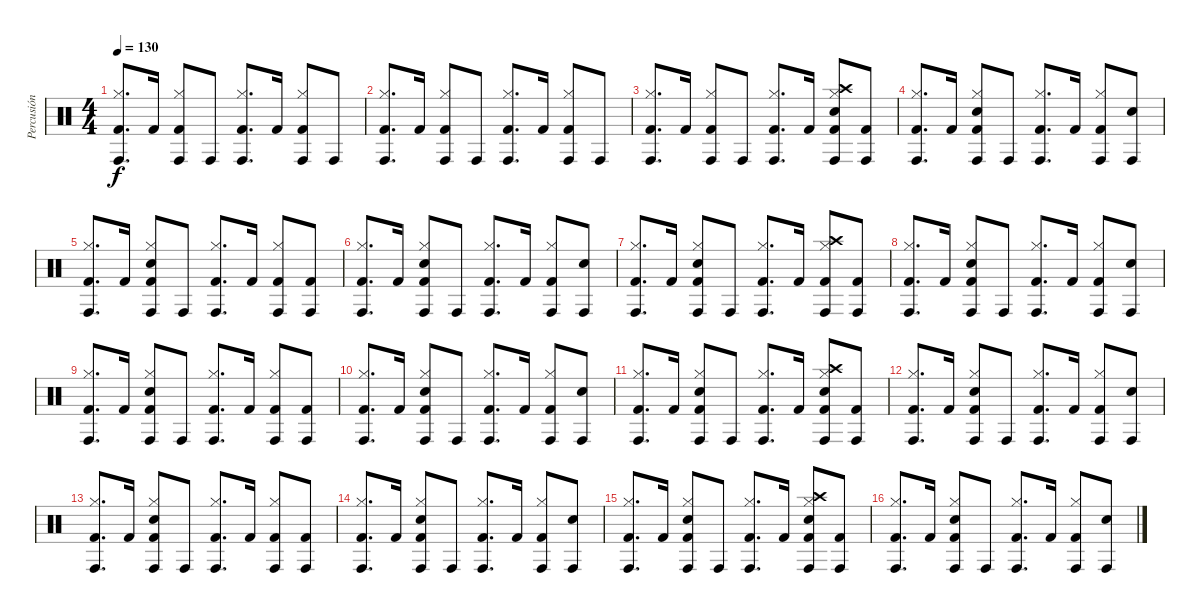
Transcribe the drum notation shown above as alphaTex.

\track ("Percusión" "Percusión") {instrument percussion}
\staff {score}
\articulation defaults
\ts (4 4)
\tempo 130
\clef neutral
\ks c
("Hi-Hat (closed)" "Kick (hit) 2" "Conga high (hit)").8{d dy f} "Kick (hit) 2".16 ("Hi-Hat (closed)" "Kick (hit) 2" "Conga high (hit)").8 "Conga high (hit)".8 ("Hi-Hat (closed)" "Kick (hit) 2" "Conga high (hit)").8{d} "Kick (hit) 2".16 ("Hi-Hat (closed)" "Kick (hit) 2" "Conga high (hit)").8 "Conga high (hit)".8 |
("Hi-Hat (closed)" "Kick (hit) 2" "Conga high (hit)").8{d} "Kick (hit) 2".16 ("Hi-Hat (closed)" "Kick (hit) 2" "Conga high (hit)").8 "Conga high (hit)".8 ("Hi-Hat (closed)" "Kick (hit) 2" "Conga high (hit)").8{d} "Kick (hit) 2".16 ("Hi-Hat (closed)" "Kick (hit) 2" "Conga high (hit)").8 "Conga high (hit)".8 |
("Hi-Hat (closed)" "Kick (hit) 2" "Conga high (hit)").8{d} "Kick (hit) 2".16 ("Hi-Hat (closed)" "Kick (hit) 2" "Conga high (hit)").8 "Conga high (hit)".8 ("Hi-Hat (closed)" "Kick (hit) 2" "Conga high (hit)").8{d} "Kick (hit) 2".16 ("Crash high (hit)" "Electric Snare (hit)" "Hi-Hat (closed)" "Kick (hit) 2" "Conga high (hit)").8 ("Kick (hit) 2" "Conga high (hit)").8 |
("Hi-Hat (closed)" "Kick (hit) 2" "Conga high (hit)").8{d} "Kick (hit) 2".16 ("Electric Snare (hit)" "Hi-Hat (closed)" "Kick (hit) 2" "Conga high (hit)").8 "Conga high (hit)".8 ("Hi-Hat (closed)" "Kick (hit) 2" "Conga high (hit)").8{d} "Kick (hit) 2".16 ("Hi-Hat (closed)" "Kick (hit) 2" "Conga high (hit)").8 ("Electric Snare (hit)" "Conga high (hit)").8 |
("Hi-Hat (closed)" "Kick (hit) 2" "Conga high (hit)").8{d} "Kick (hit) 2".16 ("Electric Snare (hit)" "Hi-Hat (closed)" "Kick (hit) 2" "Conga high (hit)").8 "Conga high (hit)".8 ("Hi-Hat (closed)" "Kick (hit) 2" "Conga high (hit)").8{d} "Kick (hit) 2".16 ("Hi-Hat (closed)" "Kick (hit) 2" "Conga high (hit)").8 ("Kick (hit) 2" "Conga high (hit)").8 |
("Hi-Hat (closed)" "Kick (hit) 2" "Conga high (hit)").8{d} "Kick (hit) 2".16 ("Electric Snare (hit)" "Hi-Hat (closed)" "Kick (hit) 2" "Conga high (hit)").8 "Conga high (hit)".8 ("Hi-Hat (closed)" "Kick (hit) 2" "Conga high (hit)").8{d} "Kick (hit) 2".16 ("Hi-Hat (closed)" "Kick (hit) 2" "Conga high (hit)").8 ("Electric Snare (hit)" "Conga high (hit)").8 |
("Hi-Hat (closed)" "Kick (hit) 2" "Conga high (hit)").8{d} "Kick (hit) 2".16 ("Electric Snare (hit)" "Hi-Hat (closed)" "Kick (hit) 2" "Conga high (hit)").8 "Conga high (hit)".8 ("Hi-Hat (closed)" "Kick (hit) 2" "Conga high (hit)").8{d} "Kick (hit) 2".16 ("Crash high (hit)" "Hi-Hat (closed)" "Kick (hit) 2" "Conga high (hit)").8 ("Kick (hit) 2" "Conga high (hit)").8 |
("Hi-Hat (closed)" "Kick (hit) 2" "Conga high (hit)").8{d} "Kick (hit) 2".16 ("Electric Snare (hit)" "Hi-Hat (closed)" "Kick (hit) 2" "Conga high (hit)").8 "Conga high (hit)".8 ("Hi-Hat (closed)" "Kick (hit) 2" "Conga high (hit)").8{d} "Kick (hit) 2".16 ("Hi-Hat (closed)" "Kick (hit) 2" "Conga high (hit)").8 ("Electric Snare (hit)" "Conga high (hit)").8 |
("Hi-Hat (closed)" "Kick (hit) 2" "Conga high (hit)").8{d} "Kick (hit) 2".16 ("Electric Snare (hit)" "Hi-Hat (closed)" "Kick (hit) 2" "Conga high (hit)").8 "Conga high (hit)".8 ("Hi-Hat (closed)" "Kick (hit) 2" "Conga high (hit)").8{d} "Kick (hit) 2".16 ("Hi-Hat (closed)" "Kick (hit) 2" "Conga high (hit)").8 ("Kick (hit) 2" "Conga high (hit)").8 |
("Hi-Hat (closed)" "Kick (hit) 2" "Conga high (hit)").8{d} "Kick (hit) 2".16 ("Electric Snare (hit)" "Hi-Hat (closed)" "Kick (hit) 2" "Conga high (hit)").8 "Conga high (hit)".8 ("Hi-Hat (closed)" "Kick (hit) 2" "Conga high (hit)").8{d} "Kick (hit) 2".16 ("Hi-Hat (closed)" "Kick (hit) 2" "Conga high (hit)").8 ("Electric Snare (hit)" "Conga high (hit)").8 |
("Hi-Hat (closed)" "Kick (hit) 2" "Conga high (hit)").8{d} "Kick (hit) 2".16 ("Electric Snare (hit)" "Hi-Hat (closed)" "Kick (hit) 2" "Conga high (hit)").8 "Conga high (hit)".8 ("Hi-Hat (closed)" "Kick (hit) 2" "Conga high (hit)").8{d} "Kick (hit) 2".16 ("Crash high (hit)" "Electric Snare (hit)" "Hi-Hat (closed)" "Kick (hit) 2" "Conga high (hit)").8 ("Kick (hit) 2" "Conga high (hit)").8 |
("Hi-Hat (closed)" "Kick (hit) 2" "Conga high (hit)").8{d} "Kick (hit) 2".16 ("Electric Snare (hit)" "Hi-Hat (closed)" "Kick (hit) 2" "Conga high (hit)").8 "Conga high (hit)".8 ("Hi-Hat (closed)" "Kick (hit) 2" "Conga high (hit)").8{d} "Kick (hit) 2".16 ("Hi-Hat (closed)" "Kick (hit) 2" "Conga high (hit)").8 ("Electric Snare (hit)" "Conga high (hit)").8 |
("Hi-Hat (closed)" "Kick (hit) 2" "Conga high (hit)").8{d} "Kick (hit) 2".16 ("Electric Snare (hit)" "Hi-Hat (closed)" "Kick (hit) 2" "Conga high (hit)").8 "Conga high (hit)".8 ("Hi-Hat (closed)" "Kick (hit) 2" "Conga high (hit)").8{d} "Kick (hit) 2".16 ("Hi-Hat (closed)" "Kick (hit) 2" "Conga high (hit)").8 ("Kick (hit) 2" "Conga high (hit)").8 |
("Hi-Hat (closed)" "Kick (hit) 2" "Conga high (hit)").8{d} "Kick (hit) 2".16 ("Electric Snare (hit)" "Hi-Hat (closed)" "Kick (hit) 2" "Conga high (hit)").8 "Conga high (hit)".8 ("Hi-Hat (closed)" "Kick (hit) 2" "Conga high (hit)").8{d} "Kick (hit) 2".16 ("Hi-Hat (closed)" "Kick (hit) 2" "Conga high (hit)").8 ("Electric Snare (hit)" "Conga high (hit)").8 |
("Hi-Hat (closed)" "Kick (hit) 2" "Conga high (hit)").8{d} "Kick (hit) 2".16 ("Electric Snare (hit)" "Hi-Hat (closed)" "Kick (hit) 2" "Conga high (hit)").8 "Conga high (hit)".8 ("Hi-Hat (closed)" "Kick (hit) 2" "Conga high (hit)").8{d} "Kick (hit) 2".16 ("Crash high (hit)" "Electric Snare (hit)" "Hi-Hat (closed)" "Kick (hit) 2" "Conga high (hit)").8 ("Kick (hit) 2" "Conga high (hit)").8 |
("Hi-Hat (closed)" "Kick (hit) 2" "Conga high (hit)").8{d} "Kick (hit) 2".16 ("Electric Snare (hit)" "Hi-Hat (closed)" "Kick (hit) 2" "Conga high (hit)").8 "Conga high (hit)".8 ("Hi-Hat (closed)" "Kick (hit) 2" "Conga high (hit)").8{d} "Kick (hit) 2".16 ("Hi-Hat (closed)" "Kick (hit) 2" "Conga high (hit)").8 ("Electric Snare (hit)" "Conga high (hit)").8
